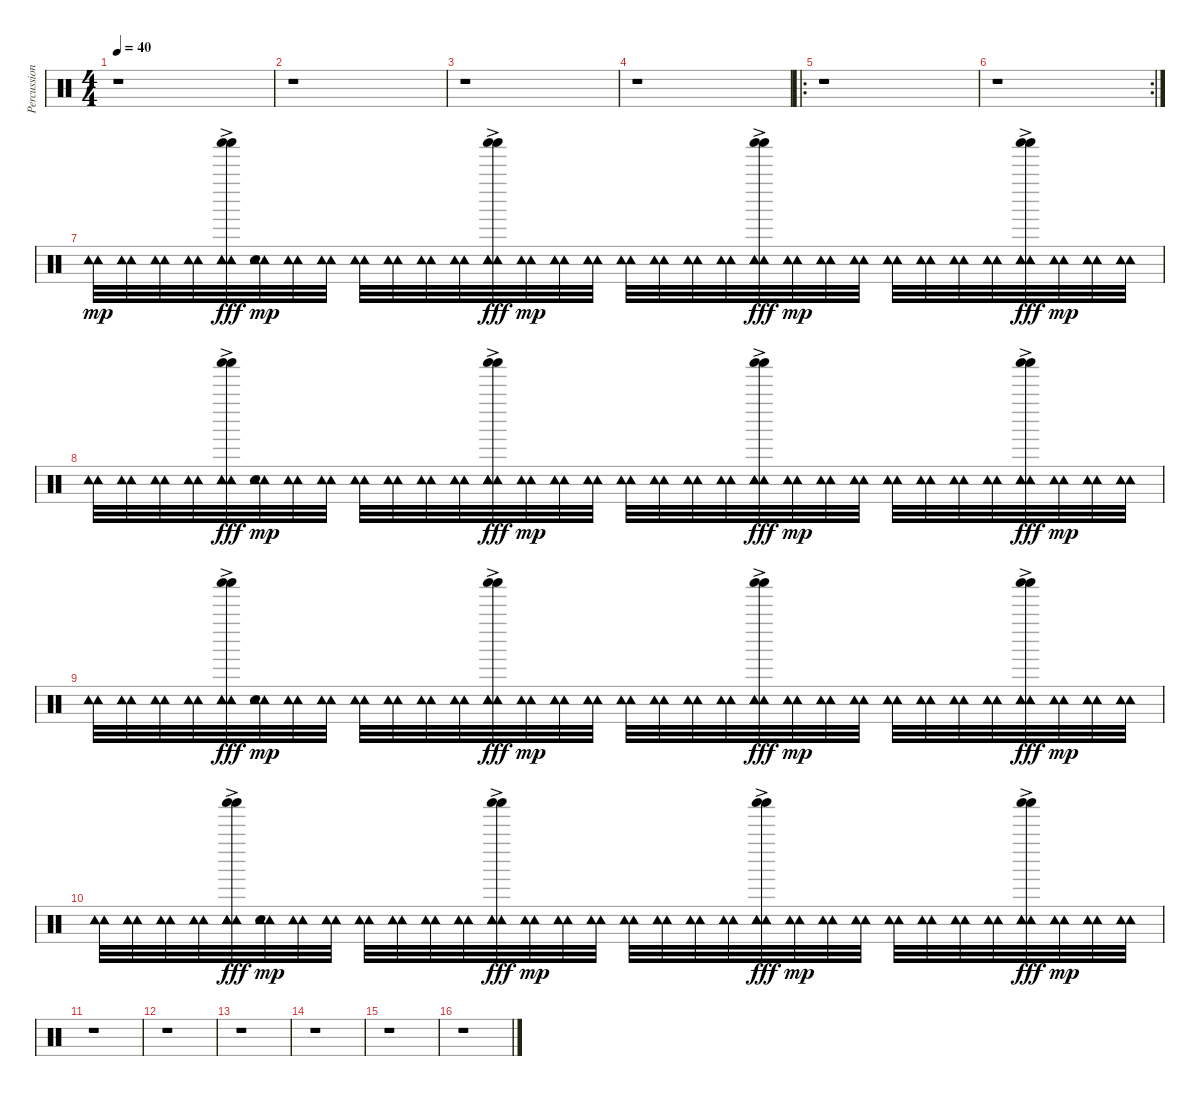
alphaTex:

\track ("Percussion" "Percussion") {instrument percussion}
\staff {score}
\articulation defaults
\ts (4 4)
\tempo 40
\clef neutral
\ks c
r.1{dy mp} |
r.1 |
r.1 |
r.1 |
\ro
r.1 |
\rc 2
r.1 |
("Tambourine (hit)" "Tambourine (hit)").32 ("Tambourine (hit)" "Tambourine (hit)").32 ("Tambourine (hit)" "Tambourine (hit)").32 ("Tambourine (hit)" "Tambourine (hit)").32 ("Tambourine (hit)" "Shaker (hit)"{ac} "Tambourine (hit)"{ac} "Shaker (hit)" "Tambourine (hit)" "Tambourine (hit)").32{dy fff} ("Tambourine (hit)" "Tambourine (hit)" "Snare (hit)").32{dy mp} ("Tambourine (hit)" "Tambourine (hit)").32 ("Tambourine (hit)" "Tambourine (hit)").32 ("Tambourine (hit)" "Tambourine (hit)").32 ("Tambourine (hit)" "Tambourine (hit)").32 ("Tambourine (hit)" "Tambourine (hit)").32 ("Tambourine (hit)" "Tambourine (hit)").32 ("Tambourine (hit)" "Shaker (hit)"{ac} "Tambourine (hit)"{ac} "Shaker (hit)" "Tambourine (hit)" "Tambourine (hit)").32{dy fff} ("Tambourine (hit)" "Tambourine (hit)").32{dy mp} ("Tambourine (hit)" "Tambourine (hit)").32 ("Tambourine (hit)" "Tambourine (hit)").32 ("Tambourine (hit)" "Tambourine (hit)").32 ("Tambourine (hit)" "Tambourine (hit)").32 ("Tambourine (hit)" "Tambourine (hit)").32 ("Tambourine (hit)" "Tambourine (hit)").32 ("Tambourine (hit)" "Shaker (hit)"{ac} "Tambourine (hit)"{ac} "Shaker (hit)" "Tambourine (hit)" "Tambourine (hit)").32{dy fff} ("Tambourine (hit)" "Tambourine (hit)").32{dy mp} ("Tambourine (hit)" "Tambourine (hit)").32 ("Tambourine (hit)" "Tambourine (hit)").32 ("Tambourine (hit)" "Tambourine (hit)").32 ("Tambourine (hit)" "Tambourine (hit)").32 ("Tambourine (hit)" "Tambourine (hit)").32 ("Tambourine (hit)" "Tambourine (hit)").32 ("Tambourine (hit)" "Shaker (hit)"{ac} "Tambourine (hit)"{ac} "Shaker (hit)" "Tambourine (hit)" "Tambourine (hit)").32{dy fff} ("Tambourine (hit)" "Tambourine (hit)").32{dy mp} ("Tambourine (hit)" "Tambourine (hit)").32 ("Tambourine (hit)" "Tambourine (hit)").32 |
("Tambourine (hit)" "Tambourine (hit)").32 ("Tambourine (hit)" "Tambourine (hit)").32 ("Tambourine (hit)" "Tambourine (hit)").32 ("Tambourine (hit)" "Tambourine (hit)").32 ("Tambourine (hit)" "Shaker (hit)"{ac} "Tambourine (hit)"{ac} "Shaker (hit)" "Tambourine (hit)" "Tambourine (hit)").32{dy fff} ("Tambourine (hit)" "Tambourine (hit)" "Snare (hit)").32{dy mp} ("Tambourine (hit)" "Tambourine (hit)").32 ("Tambourine (hit)" "Tambourine (hit)").32 ("Tambourine (hit)" "Tambourine (hit)").32 ("Tambourine (hit)" "Tambourine (hit)").32 ("Tambourine (hit)" "Tambourine (hit)").32 ("Tambourine (hit)" "Tambourine (hit)").32 ("Tambourine (hit)" "Shaker (hit)"{ac} "Tambourine (hit)"{ac} "Shaker (hit)" "Tambourine (hit)" "Tambourine (hit)").32{dy fff} ("Tambourine (hit)" "Tambourine (hit)").32{dy mp} ("Tambourine (hit)" "Tambourine (hit)").32 ("Tambourine (hit)" "Tambourine (hit)").32 ("Tambourine (hit)" "Tambourine (hit)").32 ("Tambourine (hit)" "Tambourine (hit)").32 ("Tambourine (hit)" "Tambourine (hit)").32 ("Tambourine (hit)" "Tambourine (hit)").32 ("Tambourine (hit)" "Shaker (hit)"{ac} "Tambourine (hit)"{ac} "Shaker (hit)" "Tambourine (hit)" "Tambourine (hit)").32{dy fff} ("Tambourine (hit)" "Tambourine (hit)").32{dy mp} ("Tambourine (hit)" "Tambourine (hit)").32 ("Tambourine (hit)" "Tambourine (hit)").32 ("Tambourine (hit)" "Tambourine (hit)").32 ("Tambourine (hit)" "Tambourine (hit)").32 ("Tambourine (hit)" "Tambourine (hit)").32 ("Tambourine (hit)" "Tambourine (hit)").32 ("Tambourine (hit)" "Shaker (hit)"{ac} "Tambourine (hit)"{ac} "Shaker (hit)" "Tambourine (hit)" "Tambourine (hit)").32{dy fff} ("Tambourine (hit)" "Tambourine (hit)").32{dy mp} ("Tambourine (hit)" "Tambourine (hit)").32 ("Tambourine (hit)" "Tambourine (hit)").32 |
("Tambourine (hit)" "Tambourine (hit)").32 ("Tambourine (hit)" "Tambourine (hit)").32 ("Tambourine (hit)" "Tambourine (hit)").32 ("Tambourine (hit)" "Tambourine (hit)").32 ("Tambourine (hit)" "Shaker (hit)"{ac} "Tambourine (hit)"{ac} "Shaker (hit)" "Tambourine (hit)" "Tambourine (hit)").32{dy fff} ("Tambourine (hit)" "Tambourine (hit)" "Snare (hit)").32{dy mp} ("Tambourine (hit)" "Tambourine (hit)").32 ("Tambourine (hit)" "Tambourine (hit)").32 ("Tambourine (hit)" "Tambourine (hit)").32 ("Tambourine (hit)" "Tambourine (hit)").32 ("Tambourine (hit)" "Tambourine (hit)").32 ("Tambourine (hit)" "Tambourine (hit)").32 ("Tambourine (hit)" "Shaker (hit)"{ac} "Tambourine (hit)"{ac} "Shaker (hit)" "Tambourine (hit)" "Tambourine (hit)").32{dy fff} ("Tambourine (hit)" "Tambourine (hit)").32{dy mp} ("Tambourine (hit)" "Tambourine (hit)").32 ("Tambourine (hit)" "Tambourine (hit)").32 ("Tambourine (hit)" "Tambourine (hit)").32 ("Tambourine (hit)" "Tambourine (hit)").32 ("Tambourine (hit)" "Tambourine (hit)").32 ("Tambourine (hit)" "Tambourine (hit)").32 ("Tambourine (hit)" "Shaker (hit)"{ac} "Tambourine (hit)"{ac} "Shaker (hit)" "Tambourine (hit)" "Tambourine (hit)").32{dy fff} ("Tambourine (hit)" "Tambourine (hit)").32{dy mp} ("Tambourine (hit)" "Tambourine (hit)").32 ("Tambourine (hit)" "Tambourine (hit)").32 ("Tambourine (hit)" "Tambourine (hit)").32 ("Tambourine (hit)" "Tambourine (hit)").32 ("Tambourine (hit)" "Tambourine (hit)").32 ("Tambourine (hit)" "Tambourine (hit)").32 ("Tambourine (hit)" "Shaker (hit)"{ac} "Tambourine (hit)"{ac} "Shaker (hit)" "Tambourine (hit)" "Tambourine (hit)").32{dy fff} ("Tambourine (hit)" "Tambourine (hit)").32{dy mp} ("Tambourine (hit)" "Tambourine (hit)").32 ("Tambourine (hit)" "Tambourine (hit)").32 |
("Tambourine (hit)" "Tambourine (hit)").32 ("Tambourine (hit)" "Tambourine (hit)").32 ("Tambourine (hit)" "Tambourine (hit)").32 ("Tambourine (hit)" "Tambourine (hit)").32 ("Tambourine (hit)" "Shaker (hit)"{ac} "Tambourine (hit)"{ac} "Shaker (hit)" "Tambourine (hit)" "Tambourine (hit)").32{dy fff} ("Tambourine (hit)" "Tambourine (hit)" "Snare (hit)").32{dy mp} ("Tambourine (hit)" "Tambourine (hit)").32 ("Tambourine (hit)" "Tambourine (hit)").32 ("Tambourine (hit)" "Tambourine (hit)").32 ("Tambourine (hit)" "Tambourine (hit)").32 ("Tambourine (hit)" "Tambourine (hit)").32 ("Tambourine (hit)" "Tambourine (hit)").32 ("Tambourine (hit)" "Shaker (hit)"{ac} "Tambourine (hit)"{ac} "Shaker (hit)" "Tambourine (hit)" "Tambourine (hit)").32{dy fff} ("Tambourine (hit)" "Tambourine (hit)").32{dy mp} ("Tambourine (hit)" "Tambourine (hit)").32 ("Tambourine (hit)" "Tambourine (hit)").32 ("Tambourine (hit)" "Tambourine (hit)").32 ("Tambourine (hit)" "Tambourine (hit)").32 ("Tambourine (hit)" "Tambourine (hit)").32 ("Tambourine (hit)" "Tambourine (hit)").32 ("Tambourine (hit)" "Shaker (hit)"{ac} "Tambourine (hit)"{ac} "Shaker (hit)" "Tambourine (hit)" "Tambourine (hit)").32{dy fff} ("Tambourine (hit)" "Tambourine (hit)").32{dy mp} ("Tambourine (hit)" "Tambourine (hit)").32 ("Tambourine (hit)" "Tambourine (hit)").32 ("Tambourine (hit)" "Tambourine (hit)").32 ("Tambourine (hit)" "Tambourine (hit)").32 ("Tambourine (hit)" "Tambourine (hit)").32 ("Tambourine (hit)" "Tambourine (hit)").32 ("Tambourine (hit)" "Shaker (hit)"{ac} "Tambourine (hit)"{ac} "Shaker (hit)" "Tambourine (hit)" "Tambourine (hit)").32{dy fff} ("Tambourine (hit)" "Tambourine (hit)").32{dy mp} ("Tambourine (hit)" "Tambourine (hit)").32 ("Tambourine (hit)" "Tambourine (hit)").32 |
r.1 |
r.1 |
r.1 |
r.1 |
r.1 |
r.1
